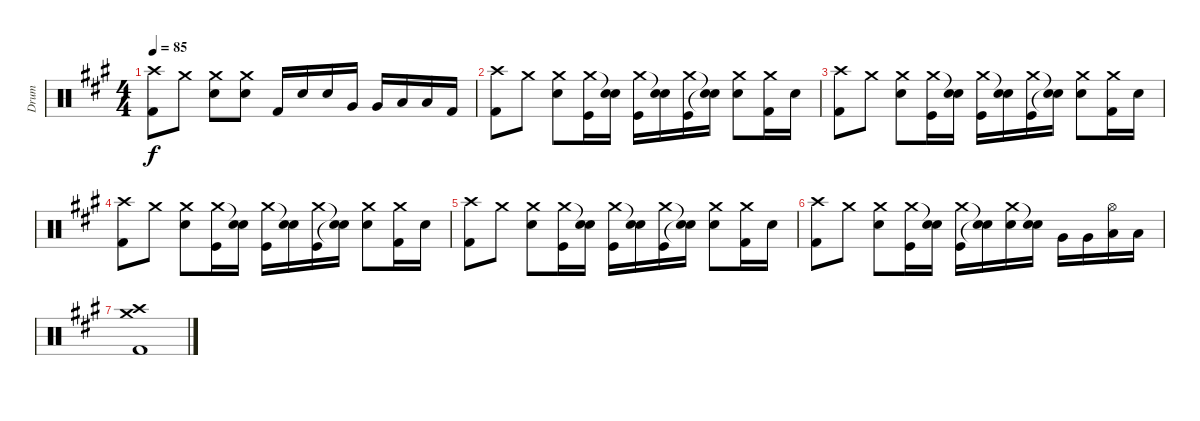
\track ("Drum" "Drum") {instrument percussion}
\staff {score}
\articulation defaults
\ts (4 4)
\tempo 85
\clef neutral
\ks a
("Crash high (hit)" "Kick (hit) 2").8{dy f} "Crash medium (hit)".8 ("Snare (hit) 2" "Crash medium (hit)").8 ("Snare (hit) 2" "Crash medium (hit)").8 "Kick (hit) 2".16 "Snare (hit) 2".16 "Snare (hit) 2".16 "Very Low Tom (hit)".16 "Very Low Tom (hit)".16 "Low Floor Tom (hit)".16 "Low Floor Tom (hit)".16 "Kick (hit) 2".16 |
("Crash high (hit)" "Kick (hit) 2").8 "Crash medium (hit)".8 ("Crash medium (hit)" "Snare (hit) 2").8 ("Crash medium (hit)" "Kick (hit)").16 ("Snare (hit) 2"{t} "Snare (hit) 2").16 ("Crash medium (hit)" "Kick (hit)").16 ("Snare (hit) 2"{t} "Snare (hit) 2").16 ("Crash medium (hit)" "Kick (hit)").16 ("Snare (hit) 2"{t} "Snare (hit)"{t}).16 ("Crash medium (hit)" "Snare (hit) 2").8 ("Crash medium (hit)" "Kick (hit) 2").16 "Snare (hit) 2".16 |
("Crash high (hit)" "Kick (hit) 2").8 "Crash medium (hit)".8 ("Crash medium (hit)" "Snare (hit) 2").8 ("Crash medium (hit)" "Kick (hit)").16 ("Snare (hit) 2"{t} "Snare (hit) 2").16 ("Crash medium (hit)" "Kick (hit)").16 ("Snare (hit) 2"{t} "Snare (hit) 2").16 ("Crash medium (hit)" "Kick (hit)").16 ("Snare (hit) 2"{t} "Snare (hit)"{t}).16 ("Crash medium (hit)" "Snare (hit) 2").8 ("Crash medium (hit)" "Kick (hit) 2").16 "Snare (hit) 2".16 |
("Crash high (hit)" "Kick (hit) 2").8 "Crash medium (hit)".8 ("Crash medium (hit)" "Snare (hit) 2").8 ("Crash medium (hit)" "Kick (hit)").16 ("Snare (hit) 2"{t} "Snare (hit) 2").16 ("Crash medium (hit)" "Kick (hit)").16 ("Snare (hit) 2"{t} "Snare (hit) 2").16 ("Crash medium (hit)" "Kick (hit)").16 ("Snare (hit) 2"{t} "Snare (hit)"{t}).16 ("Crash medium (hit)" "Snare (hit) 2").8 ("Crash medium (hit)" "Kick (hit) 2").16 "Snare (hit) 2".16 |
("Crash high (hit)" "Kick (hit) 2").8 "Crash medium (hit)".8 ("Crash medium (hit)" "Snare (hit) 2").8 ("Crash medium (hit)" "Kick (hit)").16 ("Snare (hit) 2"{t} "Snare (hit) 2").16 ("Crash medium (hit)" "Kick (hit)").16 ("Snare (hit) 2"{t} "Snare (hit) 2").16 ("Crash medium (hit)" "Kick (hit)").16 ("Snare (hit) 2"{t} "Snare (hit)"{t}).16 ("Crash medium (hit)" "Snare (hit) 2").8 ("Crash medium (hit)" "Kick (hit) 2").16 "Snare (hit) 2".16 |
("Crash high (hit)" "Kick (hit) 2").8 "Crash medium (hit)".8 ("Crash medium (hit)" "Snare (hit) 2").8 ("Crash medium (hit)" "Kick (hit)").16 ("Snare (hit) 2"{t} "Snare (hit) 2").16 ("Crash medium (hit)" "Kick (hit)").16 ("Snare (hit) 2"{t} "Snare (hit) 2"{t}).16 ("Crash medium (hit)" "Snare (hit) 2").16 ("Snare (hit) 2"{t} "Snare (hit) 2").16 "Very Low Tom (hit)".16 "Very Low Tom (hit)".16 ("Hi-Hat (open)" "Low Floor Tom (hit)").16 "Low Floor Tom (hit)".16 |
("Crash medium (hit)" "Crash high (hit)" "Kick (hit) 2").1
